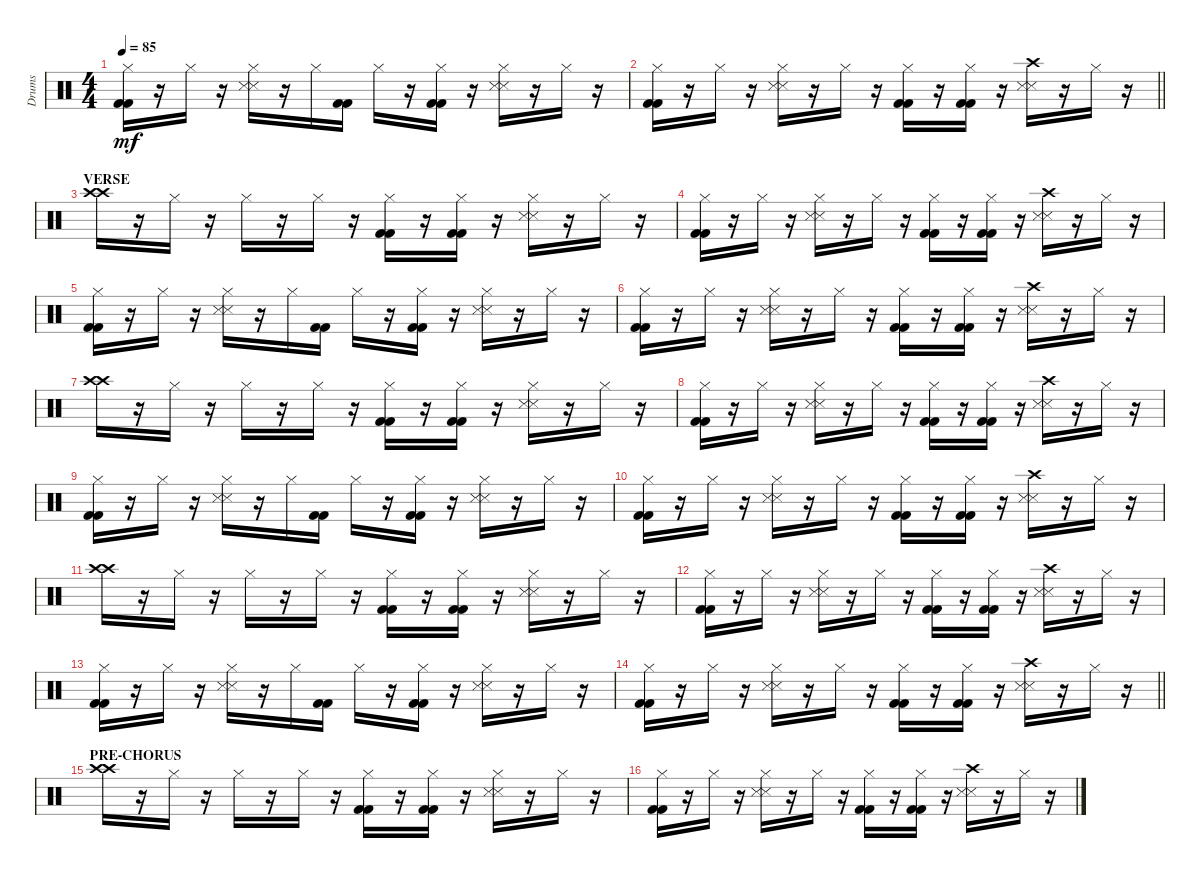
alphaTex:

\track ("Drums" "Drums") {instrument percussion}
\staff {score}
\articulation defaults
\ts (4 4)
\tempo 85
\clef neutral
\ks c
("Hi-Hat (closed)" "Kick (hit) 2" "Kick (hit) 2").16{dy mf} r.16 "Hi-Hat (closed)".16 r.16 ("Hi-Hat (closed)" "Snare (side stick) 3" "Snare (side stick) 3").16 r.16 "Hi-Hat (closed)".16 ("Kick (hit) 2" "Kick (hit) 2").16 "Hi-Hat (closed)".16 r.16 ("Hi-Hat (closed)" "Kick (hit) 2" "Kick (hit) 2").16 r.16 ("Hi-Hat (closed)" "Snare (side stick) 3" "Snare (side stick) 3").16 r.16 "Hi-Hat (closed)".16 r.16 |
\barLineRight lightlight
("Hi-Hat (closed)" "Kick (hit) 2" "Kick (hit) 2").16 r.16 "Hi-Hat (closed)".16 r.16 ("Hi-Hat (closed)" "Snare (side stick) 3" "Snare (side stick) 3").16 r.16 "Hi-Hat (closed)".16 r.16 ("Hi-Hat (closed)" "Kick (hit) 2" "Kick (hit) 2").16 r.16 ("Hi-Hat (closed)" "Kick (hit) 2" "Kick (hit) 2").16 r.16 ("Crash high (hit)" "Snare (side stick) 3" "Snare (side stick) 3").16 r.16 "Hi-Hat (closed)".16 r.16 |
\section ("" "VERSE")
("Crash high (hit)" "Crash high (hit)").16 r.16 "Hi-Hat (closed)".16 r.16 "Hi-Hat (closed)".16 r.16 "Hi-Hat (closed)".16 r.16 ("Hi-Hat (closed)" "Kick (hit) 2" "Kick (hit) 2").16 r.16 ("Hi-Hat (closed)" "Kick (hit) 2" "Kick (hit) 2").16 r.16 ("Hi-Hat (closed)" "Snare (side stick) 3" "Snare (side stick) 3").16 r.16 "Hi-Hat (closed)".16 r.16 |
("Hi-Hat (closed)" "Kick (hit) 2" "Kick (hit) 2").16 r.16 "Hi-Hat (closed)".16 r.16 ("Hi-Hat (closed)" "Snare (side stick) 3" "Snare (side stick) 3").16 r.16 "Hi-Hat (closed)".16 r.16 ("Hi-Hat (closed)" "Kick (hit) 2" "Kick (hit) 2").16 r.16 ("Hi-Hat (closed)" "Kick (hit) 2" "Kick (hit) 2").16 r.16 ("Crash high (hit)" "Snare (side stick) 3" "Snare (side stick) 3").16 r.16 "Hi-Hat (closed)".16 r.16 |
("Hi-Hat (closed)" "Kick (hit) 2" "Kick (hit) 2").16 r.16 "Hi-Hat (closed)".16 r.16 ("Hi-Hat (closed)" "Snare (side stick) 3" "Snare (side stick) 3").16 r.16 "Hi-Hat (closed)".16 ("Kick (hit) 2" "Kick (hit) 2").16 "Hi-Hat (closed)".16 r.16 ("Hi-Hat (closed)" "Kick (hit) 2" "Kick (hit) 2").16 r.16 ("Hi-Hat (closed)" "Snare (side stick) 3" "Snare (side stick) 3").16 r.16 "Hi-Hat (closed)".16 r.16 |
("Hi-Hat (closed)" "Kick (hit) 2" "Kick (hit) 2").16 r.16 "Hi-Hat (closed)".16 r.16 ("Hi-Hat (closed)" "Snare (side stick) 3" "Snare (side stick) 3").16 r.16 "Hi-Hat (closed)".16 r.16 ("Hi-Hat (closed)" "Kick (hit) 2" "Kick (hit) 2").16 r.16 ("Hi-Hat (closed)" "Kick (hit) 2" "Kick (hit) 2").16 r.16 ("Crash high (hit)" "Snare (side stick) 3" "Snare (side stick) 3").16 r.16 "Hi-Hat (closed)".16 r.16 |
("Crash high (hit)" "Crash high (hit)").16 r.16 "Hi-Hat (closed)".16 r.16 "Hi-Hat (closed)".16 r.16 "Hi-Hat (closed)".16 r.16 ("Hi-Hat (closed)" "Kick (hit) 2" "Kick (hit) 2").16 r.16 ("Hi-Hat (closed)" "Kick (hit) 2" "Kick (hit) 2").16 r.16 ("Hi-Hat (closed)" "Snare (side stick) 3" "Snare (side stick) 3").16 r.16 "Hi-Hat (closed)".16 r.16 |
("Hi-Hat (closed)" "Kick (hit) 2" "Kick (hit) 2").16 r.16 "Hi-Hat (closed)".16 r.16 ("Hi-Hat (closed)" "Snare (side stick) 3" "Snare (side stick) 3").16 r.16 "Hi-Hat (closed)".16 r.16 ("Hi-Hat (closed)" "Kick (hit) 2" "Kick (hit) 2").16 r.16 ("Hi-Hat (closed)" "Kick (hit) 2" "Kick (hit) 2").16 r.16 ("Crash high (hit)" "Snare (side stick) 3" "Snare (side stick) 3").16 r.16 "Hi-Hat (closed)".16 r.16 |
("Hi-Hat (closed)" "Kick (hit) 2" "Kick (hit) 2").16 r.16 "Hi-Hat (closed)".16 r.16 ("Hi-Hat (closed)" "Snare (side stick) 3" "Snare (side stick) 3").16 r.16 "Hi-Hat (closed)".16 ("Kick (hit) 2" "Kick (hit) 2").16 "Hi-Hat (closed)".16 r.16 ("Hi-Hat (closed)" "Kick (hit) 2" "Kick (hit) 2").16 r.16 ("Hi-Hat (closed)" "Snare (side stick) 3" "Snare (side stick) 3").16 r.16 "Hi-Hat (closed)".16 r.16 |
("Hi-Hat (closed)" "Kick (hit) 2" "Kick (hit) 2").16 r.16 "Hi-Hat (closed)".16 r.16 ("Hi-Hat (closed)" "Snare (side stick) 3" "Snare (side stick) 3").16 r.16 "Hi-Hat (closed)".16 r.16 ("Hi-Hat (closed)" "Kick (hit) 2" "Kick (hit) 2").16 r.16 ("Hi-Hat (closed)" "Kick (hit) 2" "Kick (hit) 2").16 r.16 ("Crash high (hit)" "Snare (side stick) 3" "Snare (side stick) 3").16 r.16 "Hi-Hat (closed)".16 r.16 |
("Crash high (hit)" "Crash high (hit)").16 r.16 "Hi-Hat (closed)".16 r.16 "Hi-Hat (closed)".16 r.16 "Hi-Hat (closed)".16 r.16 ("Hi-Hat (closed)" "Kick (hit) 2" "Kick (hit) 2").16 r.16 ("Hi-Hat (closed)" "Kick (hit) 2" "Kick (hit) 2").16 r.16 ("Hi-Hat (closed)" "Snare (side stick) 3" "Snare (side stick) 3").16 r.16 "Hi-Hat (closed)".16 r.16 |
("Hi-Hat (closed)" "Kick (hit) 2" "Kick (hit) 2").16 r.16 "Hi-Hat (closed)".16 r.16 ("Hi-Hat (closed)" "Snare (side stick) 3" "Snare (side stick) 3").16 r.16 "Hi-Hat (closed)".16 r.16 ("Hi-Hat (closed)" "Kick (hit) 2" "Kick (hit) 2").16 r.16 ("Hi-Hat (closed)" "Kick (hit) 2" "Kick (hit) 2").16 r.16 ("Crash high (hit)" "Snare (side stick) 3" "Snare (side stick) 3").16 r.16 "Hi-Hat (closed)".16 r.16 |
("Hi-Hat (closed)" "Kick (hit) 2" "Kick (hit) 2").16 r.16 "Hi-Hat (closed)".16 r.16 ("Hi-Hat (closed)" "Snare (side stick) 3" "Snare (side stick) 3").16 r.16 "Hi-Hat (closed)".16 ("Kick (hit) 2" "Kick (hit) 2").16 "Hi-Hat (closed)".16 r.16 ("Hi-Hat (closed)" "Kick (hit) 2" "Kick (hit) 2").16 r.16 ("Hi-Hat (closed)" "Snare (side stick) 3" "Snare (side stick) 3").16 r.16 "Hi-Hat (closed)".16 r.16 |
\barLineRight lightlight
("Hi-Hat (closed)" "Kick (hit) 2" "Kick (hit) 2").16 r.16 "Hi-Hat (closed)".16 r.16 ("Hi-Hat (closed)" "Snare (side stick) 3" "Snare (side stick) 3").16 r.16 "Hi-Hat (closed)".16 r.16 ("Hi-Hat (closed)" "Kick (hit) 2" "Kick (hit) 2").16 r.16 ("Hi-Hat (closed)" "Kick (hit) 2" "Kick (hit) 2").16 r.16 ("Crash high (hit)" "Snare (side stick) 3" "Snare (side stick) 3").16 r.16 "Hi-Hat (closed)".16 r.16 |
\section ("" "PRE-CHORUS")
("Crash high (hit)" "Crash high (hit)").16 r.16 "Hi-Hat (closed)".16 r.16 "Hi-Hat (closed)".16 r.16 "Hi-Hat (closed)".16 r.16 ("Hi-Hat (closed)" "Kick (hit) 2" "Kick (hit) 2").16 r.16 ("Hi-Hat (closed)" "Kick (hit) 2" "Kick (hit) 2").16 r.16 ("Hi-Hat (closed)" "Snare (side stick) 3" "Snare (side stick) 3").16 r.16 "Hi-Hat (closed)".16 r.16 |
("Hi-Hat (closed)" "Kick (hit) 2" "Kick (hit) 2").16 r.16 "Hi-Hat (closed)".16 r.16 ("Hi-Hat (closed)" "Snare (side stick) 3" "Snare (side stick) 3").16 r.16 "Hi-Hat (closed)".16 r.16 ("Hi-Hat (closed)" "Kick (hit) 2" "Kick (hit) 2").16 r.16 ("Hi-Hat (closed)" "Kick (hit) 2" "Kick (hit) 2").16 r.16 ("Crash high (hit)" "Snare (side stick) 3" "Snare (side stick) 3").16 r.16 "Hi-Hat (closed)".16 r.16
